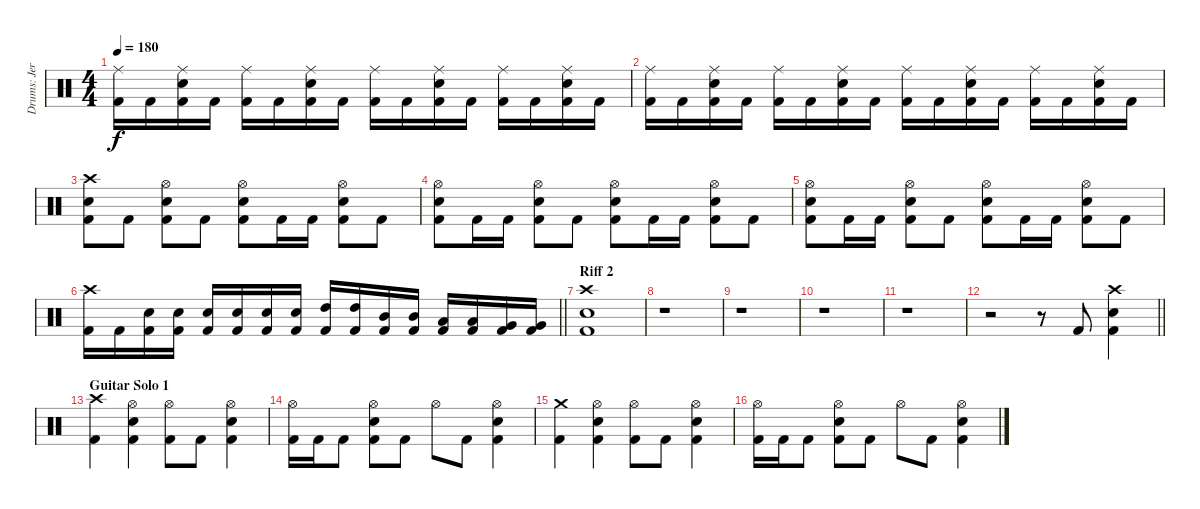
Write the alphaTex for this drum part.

\track ("Drums: Jere Luokkamäki" "Drums: Jer") {instrument percussion}
\staff {score}
\articulation defaults
\ts (4 4)
\tempo 180
\clef neutral
\ks aminor
("Ride (middle)" "Kick (hit) 2").16{dy f} "Kick (hit) 2".16 ("Ride (middle)" "Electric Snare (hit)" "Kick (hit) 2").16 "Kick (hit) 2".16 ("Ride (middle)" "Kick (hit) 2").16 "Kick (hit) 2".16 ("Ride (middle)" "Electric Snare (hit)" "Kick (hit) 2").16 "Kick (hit) 2".16 ("Ride (middle)" "Kick (hit) 2").16 "Kick (hit) 2".16 ("Ride (middle)" "Electric Snare (hit)" "Kick (hit) 2").16 "Kick (hit) 2".16 ("Ride (middle)" "Kick (hit) 2").16 "Kick (hit) 2".16 ("Ride (middle)" "Electric Snare (hit)" "Kick (hit) 2").16 "Kick (hit) 2".16 |
("Ride (middle)" "Kick (hit) 2").16 "Kick (hit) 2".16 ("Ride (middle)" "Electric Snare (hit)" "Kick (hit) 2").16 "Kick (hit) 2".16 ("Ride (middle)" "Kick (hit) 2").16 "Kick (hit) 2".16 ("Ride (middle)" "Electric Snare (hit)" "Kick (hit) 2").16 "Kick (hit) 2".16 ("Ride (middle)" "Kick (hit) 2").16 "Kick (hit) 2".16 ("Ride (middle)" "Electric Snare (hit)" "Kick (hit) 2").16 "Kick (hit) 2".16 ("Ride (middle)" "Kick (hit) 2").16 "Kick (hit) 2".16 ("Ride (middle)" "Electric Snare (hit)" "Kick (hit) 2").16 "Kick (hit) 2".16 |
("Crash high (hit)" "Electric Snare (hit)" "Kick (hit) 2").8 "Kick (hit) 2".8 ("Hi-Hat (open)" "Electric Snare (hit)" "Kick (hit) 2").8 "Kick (hit) 2".8 ("Hi-Hat (open)" "Electric Snare (hit)" "Kick (hit) 2").8 "Kick (hit) 2".16 "Kick (hit) 2".16 ("Hi-Hat (open)" "Electric Snare (hit)" "Kick (hit) 2").8 "Kick (hit) 2".8 |
("Hi-Hat (open)" "Electric Snare (hit)" "Kick (hit) 2").8 "Kick (hit) 2".16 "Kick (hit) 2".16 ("Hi-Hat (open)" "Electric Snare (hit)" "Kick (hit) 2").8 "Kick (hit) 2".8 ("Hi-Hat (open)" "Electric Snare (hit)" "Kick (hit) 2").8 "Kick (hit) 2".16 "Kick (hit) 2".16 ("Hi-Hat (open)" "Electric Snare (hit)" "Kick (hit) 2").8 "Kick (hit) 2".8 |
("Hi-Hat (open)" "Electric Snare (hit)" "Kick (hit) 2").8 "Kick (hit) 2".16 "Kick (hit) 2".16 ("Hi-Hat (open)" "Electric Snare (hit)" "Kick (hit) 2").8 "Kick (hit) 2".8 ("Hi-Hat (open)" "Electric Snare (hit)" "Kick (hit) 2").8 "Kick (hit) 2".16 "Kick (hit) 2".16 ("Hi-Hat (open)" "Electric Snare (hit)" "Kick (hit) 2").8 "Kick (hit) 2".8 |
\barLineRight lightlight
("Crash high (hit)" "Kick (hit) 2").16 "Kick (hit) 2".16 ("Electric Snare (hit)" "Kick (hit) 2").16 ("Electric Snare (hit)" "Kick (hit) 2").16 ("Electric Snare (hit)" "Kick (hit) 2").16 ("Electric Snare (hit)" "Kick (hit) 2").16 ("Electric Snare (hit)" "Kick (hit) 2").16 ("Electric Snare (hit)" "Kick (hit) 2").16 ("High Tom (hit)" "Kick (hit) 2").16 ("High Tom (hit)" "Kick (hit) 2").16 ("Mid Tom (hit)" "Kick (hit) 2").16 ("Mid Tom (hit)" "Kick (hit) 2").16 ("Low Tom (hit)" "Kick (hit) 2").16 ("Low Tom (hit)" "Kick (hit) 2").16 ("Very Low Tom (hit)" "Kick (hit) 2").16 ("Very Low Tom (hit)" "Kick (hit) 2").16 |
\section ("" "Riff 2")
("Crash high (hit)" "Electric Snare (hit)" "Kick (hit) 2").1 |
r.1 |
r.1 |
r.1 |
r.1 |
\barLineRight lightlight
r.2 r.8 "Kick (hit) 2".8 ("Crash high (hit)" "Electric Snare (hit)" "Kick (hit) 2").4 |
\section ("" "Guitar Solo 1")
("Crash high (hit)" "Kick (hit) 2").4 ("Hi-Hat (open)" "Electric Snare (hit)" "Kick (hit) 2").4 ("Hi-Hat (open)" "Kick (hit) 2").8 "Kick (hit) 2".8 ("Hi-Hat (open)" "Electric Snare (hit)" "Kick (hit) 2").4 |
("Hi-Hat (open)" "Kick (hit) 2").16 "Kick (hit) 2".16 "Kick (hit) 2".8 ("Hi-Hat (open)" "Electric Snare (hit)" "Kick (hit) 2").8 "Kick (hit) 2".8 "Hi-Hat (open)".8 "Kick (hit) 2".8 ("Hi-Hat (open)" "Electric Snare (hit)" "Kick (hit) 2").4 |
("Crash medium (hit)" "Kick (hit) 2").4 ("Hi-Hat (open)" "Electric Snare (hit)" "Kick (hit) 2").4 ("Hi-Hat (open)" "Kick (hit) 2").8 "Kick (hit) 2".8 ("Hi-Hat (open)" "Electric Snare (hit)" "Kick (hit) 2").4 |
("Hi-Hat (open)" "Kick (hit) 2").16 "Kick (hit) 2".16 "Kick (hit) 2".8 ("Hi-Hat (open)" "Electric Snare (hit)" "Kick (hit) 2").8 "Kick (hit) 2".8 "Hi-Hat (open)".8 "Kick (hit) 2".8 ("Hi-Hat (open)" "Electric Snare (hit)" "Kick (hit) 2").4
